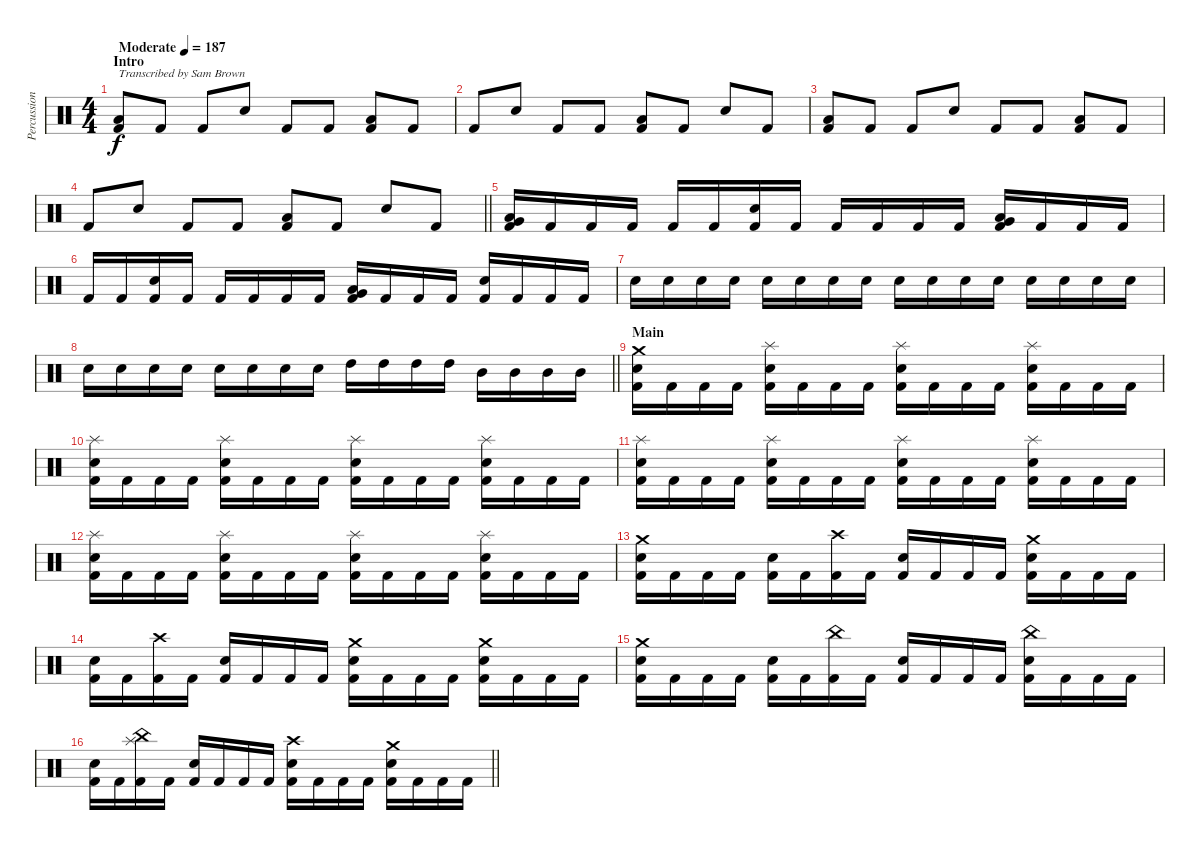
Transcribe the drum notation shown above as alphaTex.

\track ("Percussion" "Percussion") {instrument percussion}
\staff {score}
\articulation defaults
\ts (4 4)
\section ("" "Intro")
\tempo (187 "Moderate")
\clef neutral
\ks c
("Kick (hit) 2" "Low Floor Tom (hit)").8{txt "Transcribed by Sam Brown" dy f} "Kick (hit) 2".8 "Kick (hit) 2".8 "Snare (hit) 2".8 "Kick (hit) 2".8 "Kick (hit) 2".8 ("Kick (hit) 2" "Low Floor Tom (hit)").8 "Kick (hit) 2".8 |
"Kick (hit) 2".8 "Snare (hit) 2".8 "Kick (hit) 2".8 "Kick (hit) 2".8 ("Kick (hit) 2" "Low Floor Tom (hit)").8 "Kick (hit) 2".8 "Snare (hit) 2".8 "Kick (hit) 2".8 |
("Kick (hit) 2" "Low Floor Tom (hit)").8 "Kick (hit) 2".8 "Kick (hit) 2".8 "Snare (hit) 2".8 "Kick (hit) 2".8 "Kick (hit) 2".8 ("Kick (hit) 2" "Low Floor Tom (hit)").8 "Kick (hit) 2".8 |
\barLineRight lightlight "Kick (hit) 2".8 "Snare (hit) 2".8 "Kick (hit) 2".8 "Kick (hit) 2".8
("Kick (hit) 2" "Low Floor Tom (hit)").8 "Kick (hit) 2".8 "Snare (hit) 2".8 "Kick (hit) 2".8 |
\section ("" "")
("Kick (hit) 2" "Low Floor Tom (hit)" "Very Low Tom (hit)").16 "Kick (hit) 2".16 "Kick (hit) 2".16 "Kick (hit) 2".16 "Kick (hit) 2".16 "Kick (hit) 2".16 ("Kick (hit) 2" "Snare (hit) 2").16 "Kick (hit) 2".16 "Kick (hit) 2".16 "Kick (hit) 2".16 "Kick (hit) 2".16 "Kick (hit) 2".16 ("Kick (hit) 2" "Low Floor Tom (hit)" "Very Low Tom (hit)").16 "Kick (hit) 2".16 "Kick (hit) 2".16 "Kick (hit) 2".16 |
"Kick (hit) 2".16 "Kick (hit) 2".16 ("Kick (hit) 2" "Snare (hit) 2").16 "Kick (hit) 2".16 "Kick (hit) 2".16 "Kick (hit) 2".16 "Kick (hit) 2".16 "Kick (hit) 2".16 ("Kick (hit) 2" "Low Floor Tom (hit)" "Very Low Tom (hit)").16 "Kick (hit) 2".16 "Kick (hit) 2".16 "Kick (hit) 2".16 ("Kick (hit) 2" "Snare (hit) 2").16 "Kick (hit) 2".16 "Kick (hit) 2".16 "Kick (hit) 2".16 |
"Snare (hit) 2".16{volume 9} "Snare (hit) 2".16{volume 16} "Snare (hit) 2".16 "Snare (hit) 2".16 "Snare (hit) 2".16 "Snare (hit) 2".16 "Snare (hit) 2".16 "Snare (hit) 2".16 "Snare (hit) 2".16 "Snare (hit) 2".16 "Snare (hit) 2".16 "Snare (hit) 2".16 "Snare (hit) 2".16 "Snare (hit) 2".16 "Snare (hit) 2".16 "Snare (hit) 2".16 |
\barLineRight lightlight "Snare (hit) 2".16 "Snare (hit) 2".16 "Snare (hit) 2".16 "Snare (hit) 2".16 "Snare (hit) 2".16 "Snare (hit) 2".16 "Snare (hit) 2".16 "Snare (hit) 2".16 "High Tom (hit)".16 "High Tom (hit)".16 "High Tom (hit)".16 "High Tom (hit)".16 "Mid Tom (hit)".16 "Mid Tom (hit)".16 "Mid Tom (hit)".16 "Mid Tom (hit)".16
|
\section ("" "Main")
("Kick (hit) 2" "Snare (hit) 2" "Crash medium (hit)").16 "Kick (hit) 2".16 "Kick (hit) 2".16 "Kick (hit) 2".16 ("Kick (hit) 2" "Snare (hit) 2" "Splash (hit)").16 "Kick (hit) 2".16 "Kick (hit) 2".16 "Kick (hit) 2".16 ("Kick (hit) 2" "Snare (hit) 2" "Splash (hit)").16 "Kick (hit) 2".16 "Kick (hit) 2".16 "Kick (hit) 2".16 ("Kick (hit) 2" "Snare (hit) 2" "Splash (hit)").16 "Kick (hit) 2".16 "Kick (hit) 2".16 "Kick (hit) 2".16 |
("Kick (hit) 2" "Snare (hit) 2" "Splash (hit)").16 "Kick (hit) 2".16 "Kick (hit) 2".16 "Kick (hit) 2".16 ("Kick (hit) 2" "Snare (hit) 2" "Splash (hit)").16 "Kick (hit) 2".16 "Kick (hit) 2".16 "Kick (hit) 2".16 ("Kick (hit) 2" "Snare (hit) 2" "Splash (hit)").16 "Kick (hit) 2".16 "Kick (hit) 2".16 "Kick (hit) 2".16 ("Kick (hit) 2" "Snare (hit) 2" "Splash (hit)").16 "Kick (hit) 2".16 "Kick (hit) 2".16 "Kick (hit) 2".16 |
("Kick (hit) 2" "Snare (hit) 2" "Splash (hit)").16 "Kick (hit) 2".16 "Kick (hit) 2".16 "Kick (hit) 2".16 ("Kick (hit) 2" "Snare (hit) 2" "Splash (hit)").16 "Kick (hit) 2".16 "Kick (hit) 2".16 "Kick (hit) 2".16 ("Kick (hit) 2" "Snare (hit) 2" "Splash (hit)").16 "Kick (hit) 2".16 "Kick (hit) 2".16 "Kick (hit) 2".16 ("Kick (hit) 2" "Snare (hit) 2" "Splash (hit)").16 "Kick (hit) 2".16 "Kick (hit) 2".16 "Kick (hit) 2".16 |
("Kick (hit) 2" "Snare (hit) 2" "Splash (hit)").16 "Kick (hit) 2".16 "Kick (hit) 2".16 "Kick (hit) 2".16 ("Kick (hit) 2" "Snare (hit) 2" "Splash (hit)").16 "Kick (hit) 2".16 "Kick (hit) 2".16 "Kick (hit) 2".16 ("Kick (hit) 2" "Snare (hit) 2" "Splash (hit)").16 "Kick (hit) 2".16 "Kick (hit) 2".16 "Kick (hit) 2".16 ("Kick (hit) 2" "Snare (hit) 2" "Splash (hit)").16 "Kick (hit) 2".16 "Kick (hit) 2".16 "Kick (hit) 2".16 |
("Kick (hit) 2" "Snare (hit) 2" "Crash medium (hit)").16 "Kick (hit) 2".16 "Kick (hit) 2".16 "Kick (hit) 2".16 ("Kick (hit) 2" "Snare (hit) 2").16 "Kick (hit) 2".16 ("Kick (hit) 2" "Crash high (hit)").16 "Kick (hit) 2".16 ("Kick (hit) 2" "Snare (hit) 2").16 "Kick (hit) 2".16 "Kick (hit) 2".16 "Kick (hit) 2".16 ("Kick (hit) 2" "Snare (hit) 2" "Crash medium (hit)").16 "Kick (hit) 2".16 "Kick (hit) 2".16 "Kick (hit) 2".16 |
("Kick (hit) 2" "Snare (hit) 2").16 "Kick (hit) 2".16 ("Kick (hit) 2" "Crash high (hit)").16 "Kick (hit) 2".16 ("Kick (hit) 2" "Snare (hit) 2").16 "Kick (hit) 2".16 "Kick (hit) 2".16 "Kick (hit) 2".16 ("Kick (hit) 2" "Snare (hit) 2" "Crash medium (hit)").16 "Kick (hit) 2".16 "Kick (hit) 2".16 "Kick (hit) 2".16 ("Kick (hit) 2" "Snare (hit) 2" "Crash medium (hit)").16 "Kick (hit) 2".16 "Kick (hit) 2".16 "Kick (hit) 2".16 |
("Kick (hit) 2" "Snare (hit) 2" "Crash medium (hit)").16 "Kick (hit) 2".16 "Kick (hit) 2".16 "Kick (hit) 2".16 ("Kick (hit) 2" "Snare (hit) 2").16 "Kick (hit) 2".16 ("Kick (hit) 2" "China (hit)").16 "Kick (hit) 2".16 ("Kick (hit) 2" "Snare (hit) 2").16 "Kick (hit) 2".16 "Kick (hit) 2".16 "Kick (hit) 2".16 ("Kick (hit) 2" "Snare (hit) 2" "China (hit)").16 "Kick (hit) 2".16 "Kick (hit) 2".16 "Kick (hit) 2".16 |
\barLineRight lightlight
("Kick (hit) 2" "Snare (hit) 2").16 "Kick (hit) 2".16 ("Kick (hit) 2" "China (hit)" "Splash (hit)").16 "Kick (hit) 2".16 ("Kick (hit) 2" "Snare (hit) 2").16 "Kick (hit) 2".16 "Kick (hit) 2".16 "Kick (hit) 2".16 ("Kick (hit) 2" "Snare (hit) 2" "Crash high (hit)").16 "Kick (hit) 2".16 "Kick (hit) 2".16 "Kick (hit) 2".16 ("Kick (hit) 2" "Snare (hit) 2" "Crash medium (hit)").16 "Kick (hit) 2".16 "Kick (hit) 2".16 "Kick (hit) 2".16
